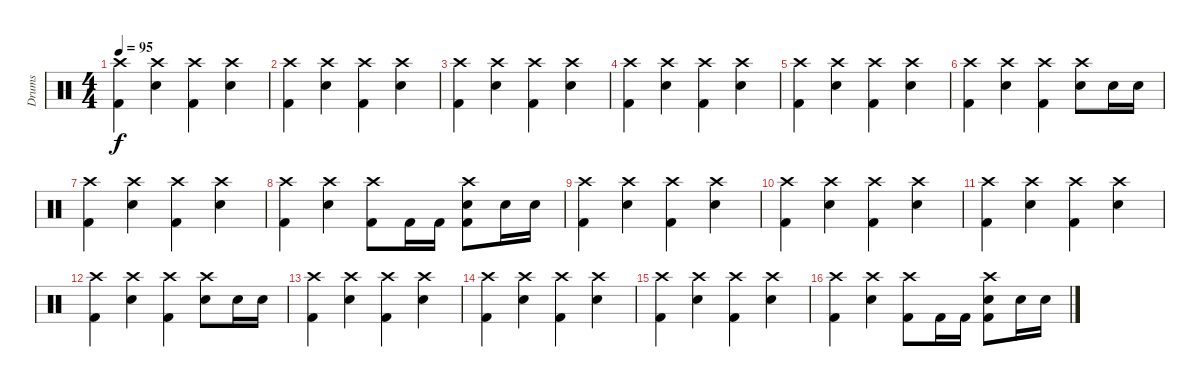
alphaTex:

\track ("Drums" "Drums") {instrument percussion}
\staff {score}
\articulation defaults
\ts (4 4)
\tempo 95
\clef neutral
\ks c
("Crash high (hit)" "Kick (hit) 2").4{dy f} ("Crash high (hit)" "Electric Snare (hit)").4 ("Crash high (hit)" "Kick (hit) 2").4 ("Crash high (hit)" "Electric Snare (hit)").4 |
("Crash high (hit)" "Kick (hit) 2").4 ("Crash high (hit)" "Electric Snare (hit)").4 ("Crash high (hit)" "Kick (hit) 2").4 ("Crash high (hit)" "Electric Snare (hit)").4 |
("Crash high (hit)" "Kick (hit) 2").4 ("Crash high (hit)" "Electric Snare (hit)").4 ("Crash high (hit)" "Kick (hit) 2").4 ("Crash high (hit)" "Electric Snare (hit)").4 |
("Crash high (hit)" "Kick (hit) 2").4 ("Crash high (hit)" "Electric Snare (hit)").4 ("Crash high (hit)" "Kick (hit) 2").4 ("Crash high (hit)" "Electric Snare (hit)").4 |
("Crash high (hit)" "Kick (hit) 2").4 ("Crash high (hit)" "Electric Snare (hit)").4 ("Crash high (hit)" "Kick (hit) 2").4 ("Crash high (hit)" "Electric Snare (hit)").4 |
("Crash high (hit)" "Kick (hit) 2").4 ("Crash high (hit)" "Electric Snare (hit)").4 ("Crash high (hit)" "Kick (hit) 2").4 ("Crash high (hit)" "Electric Snare (hit)").8 "Electric Snare (hit)".16 "Electric Snare (hit)".16 |
("Crash high (hit)" "Kick (hit) 2").4 ("Crash high (hit)" "Electric Snare (hit)").4 ("Crash high (hit)" "Kick (hit) 2").4 ("Crash high (hit)" "Electric Snare (hit)").4 |
("Crash high (hit)" "Kick (hit) 2").4 ("Crash high (hit)" "Electric Snare (hit)").4 ("Crash high (hit)" "Kick (hit) 2").8 "Kick (hit) 2".16 "Kick (hit) 2".16 ("Crash high (hit)" "Electric Snare (hit)" "Kick (hit) 2").8 "Electric Snare (hit)".16 "Electric Snare (hit)".16 |
("Crash high (hit)" "Kick (hit) 2").4 ("Crash high (hit)" "Electric Snare (hit)").4 ("Crash high (hit)" "Kick (hit) 2").4 ("Crash high (hit)" "Electric Snare (hit)").4 |
("Crash high (hit)" "Kick (hit) 2").4 ("Crash high (hit)" "Electric Snare (hit)").4 ("Crash high (hit)" "Kick (hit) 2").4 ("Crash high (hit)" "Electric Snare (hit)").4 |
("Crash high (hit)" "Kick (hit) 2").4 ("Crash high (hit)" "Electric Snare (hit)").4 ("Crash high (hit)" "Kick (hit) 2").4 ("Crash high (hit)" "Electric Snare (hit)").4 |
("Crash high (hit)" "Kick (hit) 2").4 ("Crash high (hit)" "Electric Snare (hit)").4 ("Crash high (hit)" "Kick (hit) 2").4 ("Crash high (hit)" "Electric Snare (hit)").8 "Electric Snare (hit)".16 "Electric Snare (hit)".16 |
("Crash high (hit)" "Kick (hit) 2").4 ("Crash high (hit)" "Electric Snare (hit)").4 ("Crash high (hit)" "Kick (hit) 2").4 ("Crash high (hit)" "Electric Snare (hit)").4 |
("Crash high (hit)" "Kick (hit) 2").4 ("Crash high (hit)" "Electric Snare (hit)").4 ("Crash high (hit)" "Kick (hit) 2").4 ("Crash high (hit)" "Electric Snare (hit)").4 |
("Crash high (hit)" "Kick (hit) 2").4 ("Crash high (hit)" "Electric Snare (hit)").4 ("Crash high (hit)" "Kick (hit) 2").4 ("Crash high (hit)" "Electric Snare (hit)").4 |
("Crash high (hit)" "Kick (hit) 2").4 ("Crash high (hit)" "Electric Snare (hit)").4 ("Crash high (hit)" "Kick (hit) 2").8 "Kick (hit) 2".16 "Kick (hit) 2".16 ("Crash high (hit)" "Electric Snare (hit)" "Kick (hit) 2").8 "Electric Snare (hit)".16 "Electric Snare (hit)".16
